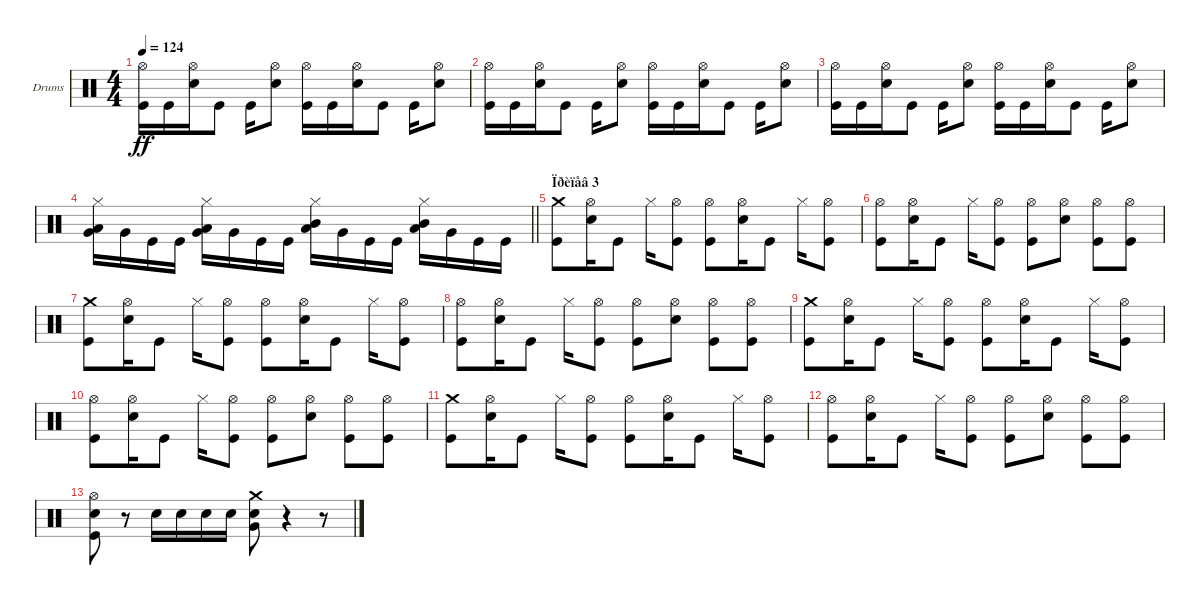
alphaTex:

\bracketExtendMode groupsimilarinstruments
\firstSystemTrackNameOrientation horizontal
\otherSystemsTrackNameOrientation horizontal
\track ("Барабаны" "Drums") {instrument percussion}
\staff {score}
\articulation defaults
\ts (4 4)
\tempo 124
\clef neutral
\ks c
("Hi-Hat (open)" "Kick (hit)").16{dy ff} "Kick (hit)".16 ("Hi-Hat (open)" "Snare (hit) 2").16 "Kick (hit)".8 "Kick (hit)".16 ("Hi-Hat (open)" "Snare (hit) 2").8 ("Kick (hit)" "Hi-Hat (open)").16 "Kick (hit)".16 ("Hi-Hat (open)" "Snare (hit) 2").16 "Kick (hit)".8 "Kick (hit)".16 ("Hi-Hat (open)" "Snare (hit) 2").8 |
("Hi-Hat (open)" "Kick (hit)").16 "Kick (hit)".16 ("Hi-Hat (open)" "Snare (hit) 2").16 "Kick (hit)".8 "Kick (hit)".16 ("Hi-Hat (open)" "Snare (hit) 2").8 ("Kick (hit)" "Hi-Hat (open)").16 "Kick (hit)".16 ("Hi-Hat (open)" "Snare (hit) 2").16 "Kick (hit)".8 "Kick (hit)".16 ("Hi-Hat (open)" "Snare (hit) 2").8 |
("Hi-Hat (open)" "Kick (hit)").16 "Kick (hit)".16 ("Hi-Hat (open)" "Snare (hit) 2").16 "Kick (hit)".8 "Kick (hit)".16 ("Hi-Hat (open)" "Snare (hit) 2").8 ("Kick (hit)" "Hi-Hat (open)").16 "Kick (hit)".16 ("Hi-Hat (open)" "Snare (hit) 2").16 "Kick (hit)".8 "Kick (hit)".16 ("Hi-Hat (open)" "Snare (hit) 2").8 |
\barLineRight lightlight
("Hi-Hat (closed)" "Very Low Tom (hit)" "Low Tom (hit)").16 "Very Low Tom (hit)".16 "Kick (hit)".16 "Kick (hit)".16 ("Hi-Hat (closed)" "Very Low Tom (hit)" "Low Tom (hit)").16 "Very Low Tom (hit)".16 "Kick (hit)".16 "Kick (hit)".16 ("Hi-Hat (closed)" "Mid Tom (hit)" "Low Tom (hit)").16 "Very Low Tom (hit)".16 "Kick (hit)".16 "Kick (hit)".16 ("Hi-Hat (closed)" "Low Tom (hit)" "Mid Tom (hit)").16 "Very Low Tom (hit)".16 "Kick (hit)".16 "Kick (hit)".16 |
\section ("" "Ïðèïåâ 3")
("Crash medium (hit)" "Kick (hit)").8 ("Hi-Hat (open)" "Snare (hit) 2").16 "Kick (hit)".8 "Hi-Hat (closed)".16 ("Hi-Hat (open)" "Kick (hit)").8 ("Hi-Hat (open)" "Kick (hit)").8 ("Hi-Hat (open)" "Snare (hit) 2").16 "Kick (hit)".8 "Hi-Hat (closed)".16 ("Kick (hit)" "Hi-Hat (open)").8 |
("Hi-Hat (open)" "Kick (hit)").8 ("Hi-Hat (open)" "Snare (hit) 2").16 "Kick (hit)".8 "Hi-Hat (closed)".16 ("Hi-Hat (open)" "Kick (hit)").8 ("Kick (hit)" "Hi-Hat (open)").8 ("Hi-Hat (open)" "Snare (hit) 2").8 ("Hi-Hat (open)" "Kick (hit)").8 ("Hi-Hat (open)" "Kick (hit)").8 |
("Crash medium (hit)" "Kick (hit)").8 ("Hi-Hat (open)" "Snare (hit) 2").16 "Kick (hit)".8 "Hi-Hat (closed)".16 ("Hi-Hat (open)" "Kick (hit)").8 ("Hi-Hat (open)" "Kick (hit)").8 ("Hi-Hat (open)" "Snare (hit) 2").16 "Kick (hit)".8 "Hi-Hat (closed)".16 ("Kick (hit)" "Hi-Hat (open)").8 |
("Hi-Hat (open)" "Kick (hit)").8 ("Hi-Hat (open)" "Snare (hit) 2").16 "Kick (hit)".8 "Hi-Hat (closed)".16 ("Hi-Hat (open)" "Kick (hit)").8 ("Kick (hit)" "Hi-Hat (open)").8 ("Hi-Hat (open)" "Snare (hit) 2").8 ("Hi-Hat (open)" "Kick (hit)").8 ("Hi-Hat (open)" "Kick (hit)").8 |
("Crash medium (hit)" "Kick (hit)").8 ("Hi-Hat (open)" "Snare (hit) 2").16 "Kick (hit)".8 "Hi-Hat (closed)".16 ("Hi-Hat (open)" "Kick (hit)").8 ("Hi-Hat (open)" "Kick (hit)").8 ("Hi-Hat (open)" "Snare (hit) 2").16 "Kick (hit)".8 "Hi-Hat (closed)".16 ("Kick (hit)" "Hi-Hat (open)").8 |
("Hi-Hat (open)" "Kick (hit)").8 ("Hi-Hat (open)" "Snare (hit) 2").16 "Kick (hit)".8 "Hi-Hat (closed)".16 ("Hi-Hat (open)" "Kick (hit)").8 ("Kick (hit)" "Hi-Hat (open)").8 ("Hi-Hat (open)" "Snare (hit) 2").8 ("Hi-Hat (open)" "Kick (hit)").8 ("Hi-Hat (open)" "Kick (hit)").8 |
("Crash medium (hit)" "Kick (hit)").8 ("Hi-Hat (open)" "Snare (hit) 2").16 "Kick (hit)".8 "Hi-Hat (closed)".16 ("Hi-Hat (open)" "Kick (hit)").8 ("Hi-Hat (open)" "Kick (hit)").8 ("Hi-Hat (open)" "Snare (hit) 2").16 "Kick (hit)".8 "Hi-Hat (closed)".16 ("Kick (hit)" "Hi-Hat (open)").8 |
("Hi-Hat (open)" "Kick (hit)").8 ("Hi-Hat (open)" "Snare (hit) 2").16 "Kick (hit)".8 "Hi-Hat (closed)".16 ("Hi-Hat (open)" "Kick (hit)").8 ("Kick (hit)" "Hi-Hat (open)").8 ("Hi-Hat (open)" "Snare (hit) 2").8 ("Hi-Hat (open)" "Kick (hit)").8 ("Hi-Hat (open)" "Kick (hit)").8 |
("Hi-Hat (open)" "Snare (hit) 2" "Kick (hit)").8 r.8 "Snare (hit) 2".16 "Snare (hit) 2".16 "Snare (hit) 2".16 "Snare (hit) 2".16 ("Crash medium (hit)" "Very Low Tom (hit)" "Snare (hit) 2").8 r.4 r.8
